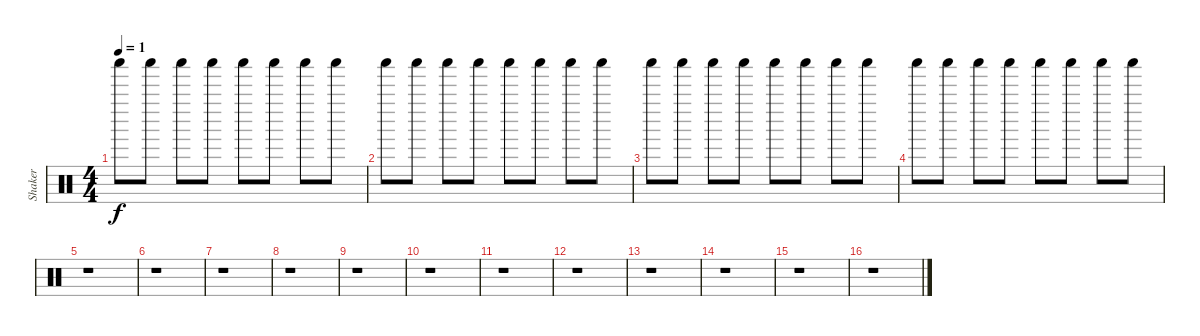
\track ("Shaker" "Shaker") {instrument percussion}
\staff {score}
\articulation defaults
\ts (4 4)
\tempo 1
\clef neutral
\ks c "Shaker (hit)".8{dy f} "Shaker (hit)".8 "Shaker (hit)".8 "Shaker (hit)".8 "Shaker (hit)".8 "Shaker (hit)".8 "Shaker (hit)".8 "Shaker (hit)".8
|
"Shaker (hit)".8 "Shaker (hit)".8 "Shaker (hit)".8 "Shaker (hit)".8 "Shaker (hit)".8 "Shaker (hit)".8 "Shaker (hit)".8 "Shaker (hit)".8 |
"Shaker (hit)".8 "Shaker (hit)".8 "Shaker (hit)".8 "Shaker (hit)".8 "Shaker (hit)".8 "Shaker (hit)".8 "Shaker (hit)".8 "Shaker (hit)".8 |
"Shaker (hit)".8 "Shaker (hit)".8 "Shaker (hit)".8 "Shaker (hit)".8 "Shaker (hit)".8 "Shaker (hit)".8 "Shaker (hit)".8 "Shaker (hit)".8 |
r.1 |
r.1 |
r.1 |
r.1 |
r.1 |
r.1 |
r.1 |
r.1 |
r.1 |
r.1 |
r.1 |
r.1
